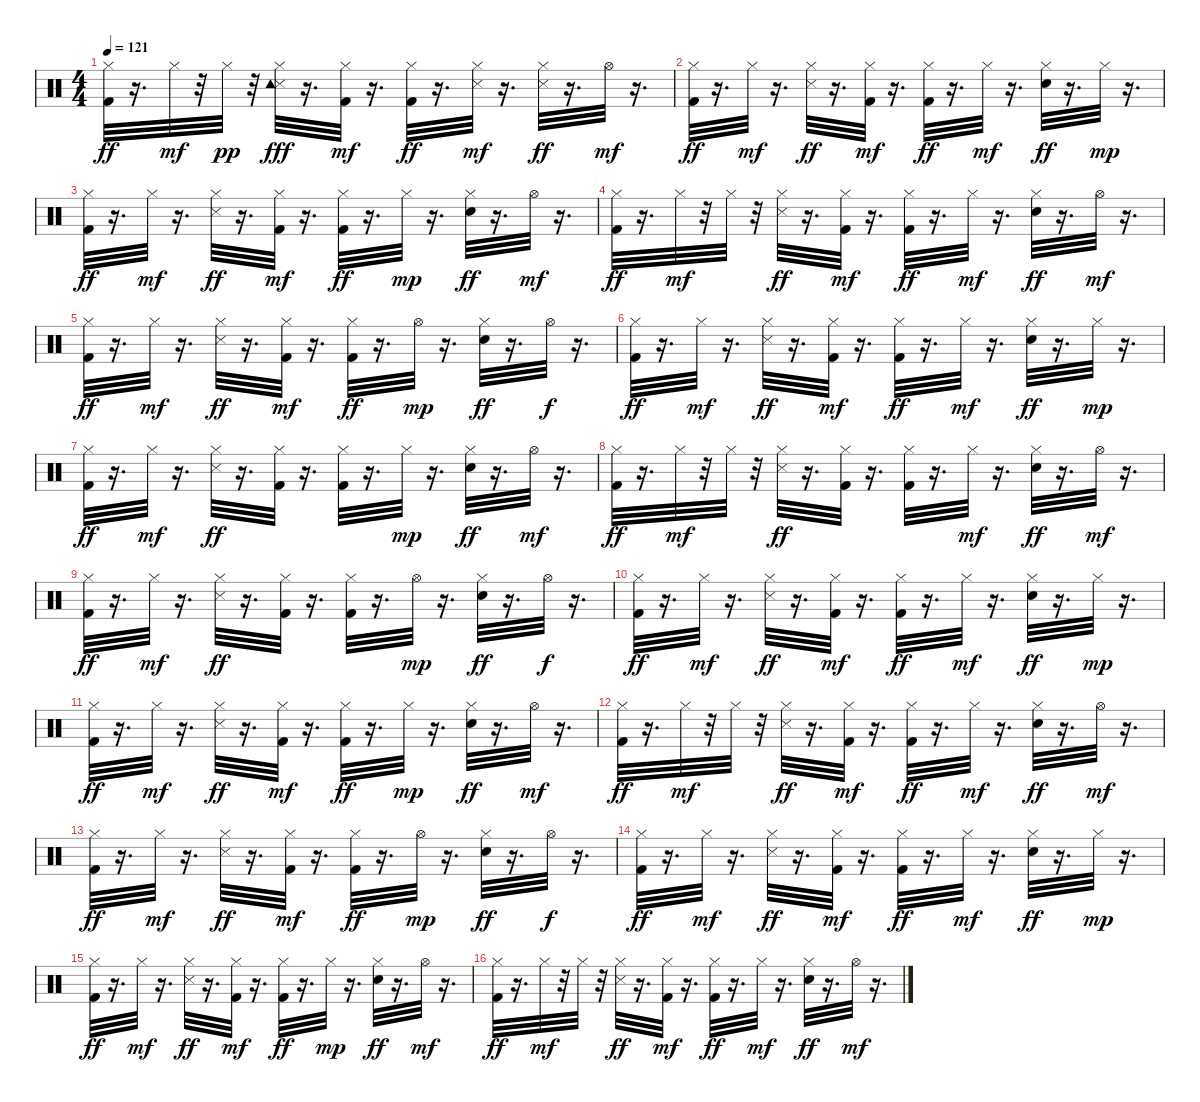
\track "" {instrument percussion}
\staff {score}
\articulation defaults
\ts (4 4)
\tempo 121
\clef neutral
\ks c
("Hi-Hat (closed)" "Kick (hit) 2").32{dy ff} r.16{d} "Hi-Hat (closed)".32{dy mf} r.32 "Hi-Hat (closed)".32{dy pp} r.32 ("Snare (side stick) 3" "Hi-Hat (closed)" "Tambourine (hit)").32{dy fff} r.16{d} ("Kick (hit) 2" "Hi-Hat (closed)").32{dy mf} r.16{d} ("Kick (hit) 2" "Hi-Hat (closed)").32{dy ff} r.16{d} ("Snare (side stick) 3" "Hi-Hat (closed)").32{dy mf} r.16{d} ("Snare (side stick) 3" "Hi-Hat (closed)").32{dy ff} r.16{d} "Hi-Hat (open)".32{dy mf} r.16{d} |
("Kick (hit) 2" "Hi-Hat (closed)").32{dy ff} r.16{d} "Hi-Hat (closed)".32{dy mf} r.16{d} ("Snare (side stick) 3" "Hi-Hat (closed)").32{dy ff} r.16{d} ("Kick (hit) 2" "Hi-Hat (closed)").32{dy mf} r.16{d} ("Kick (hit) 2" "Hi-Hat (closed)").32{dy ff} r.16{d} "Hi-Hat (closed)".32{dy mf} r.16{d} ("Electric Snare (hit)" "Hi-Hat (closed)").32{dy ff} r.16{d} "Hi-Hat (closed)".32{dy mp} r.16{d} |
("Hi-Hat (closed)" "Kick (hit) 2").32{dy ff} r.16{d} "Hi-Hat (closed)".32{dy mf} r.16{d} ("Snare (side stick) 3" "Hi-Hat (closed)").32{dy ff} r.16{d} ("Kick (hit) 2" "Hi-Hat (closed)").32{dy mf} r.16{d} ("Kick (hit) 2" "Hi-Hat (closed)").32{dy ff} r.16{d} "Hi-Hat (closed)".32{dy mp} r.16{d} ("Electric Snare (hit)" "Hi-Hat (closed)").32{dy ff} r.16{d} "Hi-Hat (open)".32{dy mf} r.16{d} |
("Kick (hit) 2" "Hi-Hat (closed)").32{dy ff} r.16{d} "Hi-Hat (closed)".32{dy mf} r.32 "Hi-Hat (closed)".32 r.32 ("Snare (side stick) 3" "Hi-Hat (closed)").32{dy ff} r.16{d} ("Kick (hit) 2" "Hi-Hat (closed)").32{dy mf} r.16{d} ("Kick (hit) 2" "Hi-Hat (closed)").32{dy ff} r.16{d} "Hi-Hat (closed)".32{dy mf} r.16{d} ("Electric Snare (hit)" "Hi-Hat (closed)").32{dy ff} r.16{d} "Hi-Hat (open)".32{dy mf} r.16{d} |
("Kick (hit) 2" "Hi-Hat (closed)").32{dy ff} r.16{d} "Hi-Hat (closed)".32{dy mf} r.16{d} ("Snare (side stick) 3" "Hi-Hat (closed)").32{dy ff} r.16{d} ("Kick (hit) 2" "Hi-Hat (closed)").32{dy mf} r.16{d} ("Kick (hit) 2" "Hi-Hat (closed)").32{dy ff} r.16{d} "Hi-Hat (open)".32{dy mp} r.16{d} ("Electric Snare (hit)" "Hi-Hat (closed)").32{dy ff} r.16{d} "Hi-Hat (open)".32{dy f} r.16{d} |
("Kick (hit) 2" "Hi-Hat (closed)").32{dy ff} r.16{d} "Hi-Hat (closed)".32{dy mf} r.16{d} ("Snare (side stick) 3" "Hi-Hat (closed)").32{dy ff} r.16{d} ("Kick (hit) 2" "Hi-Hat (closed)").32{dy mf} r.16{d} ("Kick (hit) 2" "Hi-Hat (closed)").32{dy ff} r.16{d} "Hi-Hat (closed)".32{dy mf} r.16{d} ("Electric Snare (hit)" "Hi-Hat (closed)").32{dy ff} r.16{d} "Hi-Hat (closed)".32{dy mp} r.16{d} |
("Kick (hit) 2" "Hi-Hat (closed)").32{dy ff} r.16{d} "Hi-Hat (closed)".32{dy mf} r.16{d} ("Snare (side stick) 3" "Hi-Hat (closed)").32{dy ff} r.16{d} ("Hi-Hat (closed)" "Kick (hit) 2").32 r.16{d} ("Kick (hit) 2" "Hi-Hat (closed)").32 r.16{d} "Hi-Hat (closed)".32{dy mp} r.16{d} ("Electric Snare (hit)" "Hi-Hat (closed)").32{dy ff} r.16{d} "Hi-Hat (open)".32{dy mf} r.16{d} |
("Kick (hit) 2" "Hi-Hat (closed)").32{dy ff} r.16{d} "Hi-Hat (closed)".32{dy mf} r.32 "Hi-Hat (closed)".32 r.32 ("Snare (side stick) 3" "Hi-Hat (closed)").32{dy ff} r.16{d} ("Hi-Hat (closed)" "Kick (hit) 2").32 r.16{d} ("Kick (hit) 2" "Hi-Hat (closed)").32 r.16{d} "Hi-Hat (closed)".32{dy mf} r.16{d} ("Electric Snare (hit)" "Hi-Hat (closed)").32{dy ff} r.16{d} "Hi-Hat (open)".32{dy mf} r.16{d} |
("Kick (hit) 2" "Hi-Hat (closed)").32{dy ff} r.16{d} "Hi-Hat (closed)".32{dy mf} r.16{d} ("Snare (side stick) 3" "Hi-Hat (closed)").32{dy ff} r.16{d} ("Hi-Hat (closed)" "Kick (hit) 2").32 r.16{d} ("Hi-Hat (closed)" "Kick (hit) 2").32 r.16{d} "Hi-Hat (open)".32{dy mp} r.16{d} ("Electric Snare (hit)" "Hi-Hat (closed)").32{dy ff} r.16{d} "Hi-Hat (open)".32{dy f} r.16{d} |
("Kick (hit) 2" "Hi-Hat (closed)").32{dy ff} r.16{d} "Hi-Hat (closed)".32{dy mf} r.16{d} ("Snare (side stick) 3" "Hi-Hat (closed)").32{dy ff} r.16{d} ("Kick (hit) 2" "Hi-Hat (closed)").32{dy mf} r.16{d} ("Hi-Hat (closed)" "Kick (hit) 2").32{dy ff} r.16{d} "Hi-Hat (closed)".32{dy mf} r.16{d} ("Electric Snare (hit)" "Hi-Hat (closed)").32{dy ff} r.16{d} "Hi-Hat (closed)".32{dy mp} r.16{d} |
("Kick (hit) 2" "Hi-Hat (closed)").32{dy ff} r.16{d} "Hi-Hat (closed)".32{dy mf} r.16{d} ("Snare (side stick) 3" "Hi-Hat (closed)").32{dy ff} r.16{d} ("Kick (hit) 2" "Hi-Hat (closed)").32{dy mf} r.16{d} ("Hi-Hat (closed)" "Kick (hit) 2").32{dy ff} r.16{d} "Hi-Hat (closed)".32{dy mp} r.16{d} ("Electric Snare (hit)" "Hi-Hat (closed)").32{dy ff} r.16{d} "Hi-Hat (open)".32{dy mf} r.16{d} |
("Kick (hit) 2" "Hi-Hat (closed)").32{dy ff} r.16{d} "Hi-Hat (closed)".32{dy mf} r.32 "Hi-Hat (closed)".32 r.32 ("Snare (side stick) 3" "Hi-Hat (closed)").32{dy ff} r.16{d} ("Kick (hit) 2" "Hi-Hat (closed)").32{dy mf} r.16{d} ("Hi-Hat (closed)" "Kick (hit) 2").32{dy ff} r.16{d} "Hi-Hat (closed)".32{dy mf} r.16{d} ("Electric Snare (hit)" "Hi-Hat (closed)").32{dy ff} r.16{d} "Hi-Hat (open)".32{dy mf} r.16{d} |
("Kick (hit) 2" "Hi-Hat (closed)").32{dy ff} r.16{d} "Hi-Hat (closed)".32{dy mf} r.16{d} ("Snare (side stick) 3" "Hi-Hat (closed)").32{dy ff} r.16{d} ("Kick (hit) 2" "Hi-Hat (closed)").32{dy mf} r.16{d} ("Kick (hit) 2" "Hi-Hat (closed)").32{dy ff} r.16{d} "Hi-Hat (open)".32{dy mp} r.16{d} ("Electric Snare (hit)" "Hi-Hat (closed)").32{dy ff} r.16{d} "Hi-Hat (open)".32{dy f} r.16{d} |
("Kick (hit) 2" "Hi-Hat (closed)").32{dy ff} r.16{d} "Hi-Hat (closed)".32{dy mf} r.16{d} ("Snare (side stick) 3" "Hi-Hat (closed)").32{dy ff} r.16{d} ("Kick (hit) 2" "Hi-Hat (closed)").32{dy mf} r.16{d} ("Kick (hit) 2" "Hi-Hat (closed)").32{dy ff} r.16{d} "Hi-Hat (closed)".32{dy mf} r.16{d} ("Electric Snare (hit)" "Hi-Hat (closed)").32{dy ff} r.16{d} "Hi-Hat (closed)".32{dy mp} r.16{d} |
("Kick (hit) 2" "Hi-Hat (closed)").32{dy ff} r.16{d} "Hi-Hat (closed)".32{dy mf} r.16{d} ("Snare (side stick) 3" "Hi-Hat (closed)").32{dy ff} r.16{d} ("Kick (hit) 2" "Hi-Hat (closed)").32{dy mf} r.16{d} ("Kick (hit) 2" "Hi-Hat (closed)").32{dy ff} r.16{d} "Hi-Hat (closed)".32{dy mp} r.16{d} ("Electric Snare (hit)" "Hi-Hat (closed)").32{dy ff} r.16{d} "Hi-Hat (open)".32{dy mf} r.16{d} |
("Kick (hit) 2" "Hi-Hat (closed)").32{dy ff} r.16{d} "Hi-Hat (closed)".32{dy mf} r.32 "Hi-Hat (closed)".32 r.32 ("Snare (side stick) 3" "Hi-Hat (closed)").32{dy ff} r.16{d} ("Kick (hit) 2" "Hi-Hat (closed)").32{dy mf} r.16{d} ("Kick (hit) 2" "Hi-Hat (closed)").32{dy ff} r.16{d} "Hi-Hat (closed)".32{dy mf} r.16{d} ("Electric Snare (hit)" "Hi-Hat (closed)").32{dy ff} r.16{d} "Hi-Hat (open)".32{dy mf} r.16{d}
